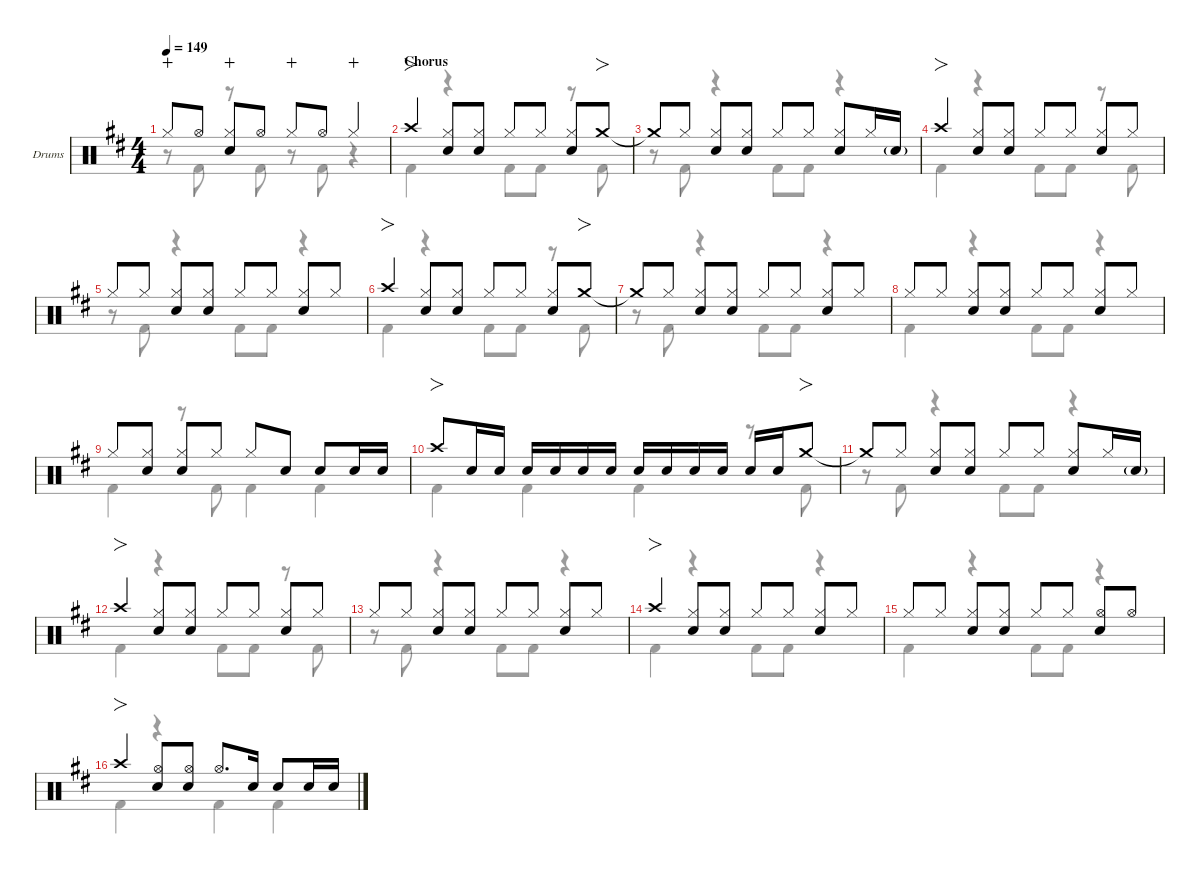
\defaultSystemsLayout 4
\hideDynamics
\bracketExtendMode nobrackets
\firstSystemTrackNameOrientation horizontal
\track ("Drums" "Drums") {defaultSystemsLayout 4 instrument percussion}
\staff {score}
\articulation defaults
\voice
\ts (4 4)
\tempo 149
\clef neutral
\scale
0.488263
\ks d "Hi-Hat (closed)"{acc forcenatural}.8{dy mp wahc beam Up} "Hi-Hat (open)"{acc forcenatural}.8{dy f beam Up}
("Hi-Hat (closed)"{acc forcenatural} "Snare (hit) 2"{acc forcenatural}).8{wahc beam Up} "Hi-Hat (open)"{acc forcenatural}.8{beam Up} "Hi-Hat (closed)"{acc forcenatural}.8{dy mp wahc beam Up} "Hi-Hat (open)"{acc forcenatural}.8{dy f beam Up} "Hi-Hat (closed)"{acc forcenatural}.4{dy mp wahc beam Up} |
\section ("" "Chorus")
\scale
0.267605 "Crash high (hit)"{acc forcenatural}.4{fo dy f beam Up} ("Hi-Hat (closed)"{acc forcenatural} "Snare (hit) 2"{acc forcenatural}).8{beam Up} ("Hi-Hat (closed)"{acc forcenatural} "Snare (hit) 2"{acc forcenatural}).8{beam Up} "Hi-Hat (closed)"{acc forcenatural}.8{beam Up} "Hi-Hat (closed)"{acc forcenatural}.8{dy mp beam Up} ("Hi-Hat (closed)"{acc forcenatural} "Snare (hit) 2"{acc forcenatural}).8{dy f beam Up} "Crash medium (hit)"{acc forcenatural}.8{fo beam Up} |
\scale
0.244132 "Crash medium (hit)"{t acc forcenatural}.8{beam Up} "Hi-Hat (closed)"{acc forcenatural}.8{dy mp beam Up} ("Hi-Hat (closed)"{acc forcenatural} "Snare (hit) 2"{acc forcenatural}).8{dy f beam Up} ("Hi-Hat (closed)"{acc forcenatural} "Snare (hit) 2"{acc forcenatural}).8{beam Up} "Hi-Hat (closed)"{acc forcenatural}.8{beam Up} "Hi-Hat (closed)"{acc forcenatural}.8{dy mp beam Up beam split} ("Hi-Hat (closed)"{acc forcenatural} "Snare (hit) 2"{acc forcenatural}).8{dy f beam Up} "Hi-Hat (closed)"{acc forcenatural}.16{dy mp beam Up} "Snare (hit) 2"{g acc forcenatural}.16{dy mf beam Up} |
\scale
0.244132 "Crash high (hit)"{acc forcenatural}.4{fo dy f beam Up} ("Hi-Hat (closed)"{acc forcenatural} "Snare (hit) 2"{acc forcenatural}).8{beam Up} ("Hi-Hat (closed)"{acc forcenatural} "Snare (hit) 2"{acc forcenatural}).8{beam Up} "Hi-Hat (closed)"{acc forcenatural}.8{beam Up} "Hi-Hat (closed)"{acc forcenatural}.8{dy mp beam Up} ("Hi-Hat (closed)"{acc forcenatural} "Snare (hit) 2"{acc forcenatural}).8{dy f beam Up} "Hi-Hat (closed)"{acc forcenatural}.8{dy mp beam Up} |
\scale
0.244132 "Hi-Hat (closed)"{acc forcenatural}.8{dy f beam Up} "Hi-Hat (closed)"{acc forcenatural}.8{dy mp beam Up} ("Hi-Hat (closed)"{acc forcenatural} "Snare (hit) 2"{acc forcenatural}).8{dy f beam Up} ("Hi-Hat (closed)"{acc forcenatural} "Snare (hit) 2"{acc forcenatural}).8{beam Up} "Hi-Hat (closed)"{acc forcenatural}.8{beam Up} "Hi-Hat (closed)"{acc forcenatural}.8{dy mp beam Up} ("Hi-Hat (closed)"{acc forcenatural} "Snare (hit) 2"{acc forcenatural}).8{dy f beam Up} "Hi-Hat (closed)"{acc forcenatural}.8{dy mp beam Up} |
\scale
0.267605 "Crash high (hit)"{acc forcenatural}.4{fo dy f beam Up} ("Hi-Hat (closed)"{acc forcenatural} "Snare (hit) 2"{acc forcenatural}).8{beam Up} ("Hi-Hat (closed)"{acc forcenatural} "Snare (hit) 2"{acc forcenatural}).8{beam Up} "Hi-Hat (closed)"{acc forcenatural}.8{beam Up} "Hi-Hat (closed)"{acc forcenatural}.8{dy mp beam Up} ("Hi-Hat (closed)"{acc forcenatural} "Snare (hit) 2"{acc forcenatural}).8{dy f beam Up} "Crash medium (hit)"{acc forcenatural}.8{fo beam Up} |
\scale
0.244132 "Crash medium (hit)"{t acc forcenatural}.8{beam Up} "Hi-Hat (closed)"{acc forcenatural}.8{dy mp beam Up} ("Hi-Hat (closed)"{acc forcenatural} "Snare (hit) 2"{acc forcenatural}).8{dy f beam Up} ("Hi-Hat (closed)"{acc forcenatural} "Snare (hit) 2"{acc forcenatural}).8{beam Up} "Hi-Hat (closed)"{acc forcenatural}.8{beam Up} "Hi-Hat (closed)"{acc forcenatural}.8{dy mp beam Up} ("Hi-Hat (closed)"{acc forcenatural} "Snare (hit) 2"{acc forcenatural}).8{dy f beam Up} "Hi-Hat (closed)"{acc forcenatural}.8{dy mp beam Up} |
\scale
0.244132 "Hi-Hat (closed)"{acc forcenatural}.8{dy f beam Up} "Hi-Hat (closed)"{acc forcenatural}.8{dy mp beam Up} ("Hi-Hat (closed)"{acc forcenatural} "Snare (hit) 2"{acc forcenatural}).8{dy f beam Up} ("Hi-Hat (closed)"{acc forcenatural} "Snare (hit) 2"{acc forcenatural}).8{beam Up} "Hi-Hat (closed)"{acc forcenatural}.8{beam Up} "Hi-Hat (closed)"{acc forcenatural}.8{dy mp beam Up} ("Hi-Hat (closed)"{acc forcenatural} "Snare (hit) 2"{acc forcenatural}).8{dy f beam Up} "Hi-Hat (closed)"{acc forcenatural}.8{dy mp beam Up} |
\scale
0.244132 "Hi-Hat (closed)"{acc forcenatural}.8{dy f beam Up} ("Hi-Hat (closed)"{acc forcenatural} "Snare (hit) 2"{acc forcenatural}).8{beam Up} ("Hi-Hat (closed)"{acc forcenatural} "Snare (hit) 2"{acc forcenatural}).8{beam Up} "Hi-Hat (closed)"{acc forcenatural}.8{dy mp beam Up} "Hi-Hat (closed)"{acc forcenatural}.8{dy f beam Up} "Snare (hit) 2"{acc forcenatural}.8{beam Up beam split} "Snare (hit) 2"{acc forcenatural}.8{beam Up} "Snare (hit) 2"{acc forcenatural}.16{beam Up} "Snare (hit) 2"{acc forcenatural}.16{beam Up} |
\scale
0.267605 "Crash high (hit)"{acc forcenatural}.8{fo beam Up} "Snare (hit) 2"{acc forcenatural}.16{beam Up} "Snare (hit) 2"{acc forcenatural}.16{dy mf beam Up beam split} "Snare (hit) 2"{acc forcenatural}.16{dy f beam Up beam merge} "Snare (hit) 2"{acc forcenatural}.16{dy mf beam Up beam merge} "Snare (hit) 2"{acc forcenatural}.16{dy f beam Up} "Snare (hit) 2"{acc forcenatural}.16{dy mf beam Up beam split} "Snare (hit) 2"{acc forcenatural}.16{dy f beam Up beam merge} "Snare (hit) 2"{acc forcenatural}.16{dy mf beam Up beam merge} "Snare (hit) 2"{acc forcenatural}.16{dy f beam Up} "Snare (hit) 2"{acc forcenatural}.16{dy mf beam Up beam split} "Snare (hit) 2"{acc forcenatural}.16{dy f beam Up} "Snare (hit) 2"{acc forcenatural}.16{dy mf beam Up beam merge} "Crash medium (hit)"{acc forcenatural}.8{fo dy f beam Up} |
\scale
0.244132 "Crash medium (hit)"{t acc forcenatural}.8{beam Up} "Hi-Hat (closed)"{acc forcenatural}.8{dy mp beam Up} ("Hi-Hat (closed)"{acc forcenatural} "Snare (hit) 2"{acc forcenatural}).8{dy f beam Up} ("Hi-Hat (closed)"{acc forcenatural} "Snare (hit) 2"{acc forcenatural}).8{beam Up} "Hi-Hat (closed)"{acc forcenatural}.8{beam Up} "Hi-Hat (closed)"{acc forcenatural}.8{dy mp beam Up beam split} ("Hi-Hat (closed)"{acc forcenatural} "Snare (hit) 2"{acc forcenatural}).8{dy f beam Up} "Hi-Hat (closed)"{acc forcenatural}.16{dy mp beam Up} "Snare (hit) 2"{g acc forcenatural}.16{dy mf beam Up} |
\scale
0.244132 "Crash high (hit)"{acc forcenatural}.4{fo dy f beam Up} ("Hi-Hat (closed)"{acc forcenatural} "Snare (hit) 2"{acc forcenatural}).8{beam Up} ("Hi-Hat (closed)"{acc forcenatural} "Snare (hit) 2"{acc forcenatural}).8{beam Up} "Hi-Hat (closed)"{acc forcenatural}.8{beam Up} "Hi-Hat (closed)"{acc forcenatural}.8{dy mp beam Up} ("Hi-Hat (closed)"{acc forcenatural} "Snare (hit) 2"{acc forcenatural}).8{dy f beam Up} "Hi-Hat (closed)"{acc forcenatural}.8{dy mp beam Up} |
\scale
0.244132 "Hi-Hat (closed)"{acc forcenatural}.8{dy f beam Up} "Hi-Hat (closed)"{acc forcenatural}.8{dy mp beam Up} ("Hi-Hat (closed)"{acc forcenatural} "Snare (hit) 2"{acc forcenatural}).8{dy f beam Up} ("Hi-Hat (closed)"{acc forcenatural} "Snare (hit) 2"{acc forcenatural}).8{beam Up} "Hi-Hat (closed)"{acc forcenatural}.8{beam Up} "Hi-Hat (closed)"{acc forcenatural}.8{dy mp beam Up} ("Hi-Hat (closed)"{acc forcenatural} "Snare (hit) 2"{acc forcenatural}).8{dy f beam Up} "Hi-Hat (closed)"{acc forcenatural}.8{dy mp beam Up} |
\scale
0.345786 "Crash high (hit)"{acc forcenatural}.4{fo dy f beam Up} ("Hi-Hat (closed)"{acc forcenatural} "Snare (hit) 2"{acc forcenatural}).8{beam Up} ("Hi-Hat (closed)"{acc forcenatural} "Snare (hit) 2"{acc forcenatural}).8{beam Up} "Hi-Hat (closed)"{acc forcenatural}.8{beam Up} "Hi-Hat (closed)"{acc forcenatural}.8{dy mp beam Up} ("Hi-Hat (closed)"{acc forcenatural} "Snare (hit) 2"{acc forcenatural}).8{dy f beam Up} "Hi-Hat (closed)"{acc forcenatural}.8{dy mp beam Up} |
\scale
0.330733 "Hi-Hat (closed)"{acc forcenatural}.8{dy f beam Up} "Hi-Hat (closed)"{acc forcenatural}.8{dy mp beam Up} ("Hi-Hat (closed)"{acc forcenatural} "Snare (hit) 2"{acc forcenatural}).8{dy f beam Up} ("Hi-Hat (closed)"{acc forcenatural} "Snare (hit) 2"{acc forcenatural}).8{beam Up} "Hi-Hat (closed)"{acc forcenatural}.8{beam Up} "Hi-Hat (closed)"{acc forcenatural}.8{dy mp beam Up} ("Hi-Hat (open)"{acc forcenatural} "Snare (hit) 2"{acc forcenatural}).8{dy f beam Up} "Hi-Hat (open)"{acc forcenatural}.8{dy mf beam Up} |
\scale
0.323481 "Crash high (hit)"{acc forcenatural}.4{fo dy f beam Up} ("Hi-Hat (open)"{acc forcenatural} "Snare (hit) 2"{acc forcenatural}).8{beam Up} ("Hi-Hat (open)"{acc forcenatural} "Snare (hit) 2"{acc forcenatural}).8{beam Up} "Hi-Hat (open)"{acc forcenatural}.8{d beam Up} "Snare (hit) 2"{acc forcenatural}.16{beam Up beam split} "Snare (hit) 2"{acc forcenatural}.8{beam Up} "Snare (hit) 2"{acc forcenatural}.16{beam Up} "Snare (hit) 2"{acc forcenatural}.16{beam Up}
\voice
\clef neutral
\ottava regular
\simile none
\scale
0.488263
\ks d
r.8{dy f beam Down} "Kick (hit) 2"{acc forcenatural}.8{beam Down} r.8{beam Down} "Kick (hit) 2"{acc forcenatural}.8{beam Down} r.8{beam Down} "Kick (hit) 2"{acc forcenatural}.8{beam Down} r.4{beam Down} |
\scale
0.267605 "Kick (hit) 2"{acc forcenatural}.4{beam Down} r.4{beam Down} "Kick (hit) 2"{acc forcenatural}.8{beam Down} "Kick (hit) 2"{acc forcenatural}.8{beam Down} r.8{beam Down} "Kick (hit) 2"{acc forcenatural}.8{beam Down} |
\scale
0.244132 r.8{beam Down} "Kick (hit) 2"{acc forcenatural}.8{beam Down} r.4{beam Down} "Kick (hit) 2"{acc forcenatural}.8{beam Down} "Kick (hit) 2"{acc forcenatural}.8{beam Down} r.4{beam Down} |
\scale
0.244132 "Kick (hit) 2"{acc forcenatural}.4{beam Down} r.4{beam Down} "Kick (hit) 2"{acc forcenatural}.8{beam Down} "Kick (hit) 2"{acc forcenatural}.8{beam Down} r.8{beam Down} "Kick (hit) 2"{acc forcenatural}.8{beam Down} |
\scale
0.244132 r.8{beam Down} "Kick (hit) 2"{acc forcenatural}.8{beam Down} r.4{beam Down} "Kick (hit) 2"{acc forcenatural}.8{beam Down} "Kick (hit) 2"{acc forcenatural}.8{beam Down} r.4{beam Down} |
\scale
0.267605 "Kick (hit) 2"{acc forcenatural}.4{beam Down} r.4{beam Down} "Kick (hit) 2"{acc forcenatural}.8{beam Down} "Kick (hit) 2"{acc forcenatural}.8{beam Down} r.8{beam Down} "Kick (hit) 2"{acc forcenatural}.8{beam Down} |
\scale
0.244132 r.8{beam Down} "Kick (hit) 2"{acc forcenatural}.8{beam Down} r.4{beam Down} "Kick (hit) 2"{acc forcenatural}.8{beam Down} "Kick (hit) 2"{acc forcenatural}.8{beam Down} r.4{beam Down} |
\scale
0.244132 "Kick (hit) 2"{acc forcenatural}.4{beam Down} r.4{beam Down} "Kick (hit) 2"{acc forcenatural}.8{beam Down} "Kick (hit) 2"{acc forcenatural}.8{beam Down} r.4{beam Down} |
\scale
0.244132 "Kick (hit) 2"{acc forcenatural}.4{beam Down} r.8{beam Down} "Kick (hit) 2"{acc forcenatural}.8{beam Down} "Kick (hit) 2"{acc forcenatural}.4{beam Down} "Kick (hit) 2"{acc forcenatural}.4{beam Down} |
\scale
0.267605 "Kick (hit) 2"{acc forcenatural}.4{beam Down} "Kick (hit) 2"{acc forcenatural}.4{beam Down} "Kick (hit) 2"{acc forcenatural}.4{beam Down} r.8{beam Down} "Kick (hit) 2"{acc forcenatural}.8{beam Down} |
\scale
0.244132 r.8{beam Down} "Kick (hit) 2"{acc forcenatural}.8{beam Down} r.4{beam Down} "Kick (hit) 2"{acc forcenatural}.8{beam Down} "Kick (hit) 2"{acc forcenatural}.8{beam Down} r.4{beam Down} |
\scale
0.244132 "Kick (hit) 2"{acc forcenatural}.4{beam Down} r.4{beam Down} "Kick (hit) 2"{acc forcenatural}.8{beam Down} "Kick (hit) 2"{acc forcenatural}.8{beam Down} r.8{beam Down} "Kick (hit) 2"{acc forcenatural}.8{beam Down} |
\scale
0.244132 r.8{beam Down} "Kick (hit) 2"{acc forcenatural}.8{beam Down} r.4{beam Down} "Kick (hit) 2"{acc forcenatural}.8{beam Down} "Kick (hit) 2"{acc forcenatural}.8{beam Down} r.4{beam Down} |
\scale
0.345786 "Kick (hit) 2"{acc forcenatural}.4{beam Down} r.4{beam Down} "Kick (hit) 2"{acc forcenatural}.8{beam Down} "Kick (hit) 2"{acc forcenatural}.8{beam Down} r.4{beam Down} |
\scale
0.330733 "Kick (hit) 2"{acc forcenatural}.4{beam Down} r.4{beam Down} "Kick (hit) 2"{acc forcenatural}.8{beam Down} "Kick (hit) 2"{acc forcenatural}.8{beam Down} r.4{beam Down} |
\scale
0.323481 "Kick (hit) 2"{acc forcenatural}.4{beam Down} r.4{beam Down} "Kick (hit) 2"{acc forcenatural}.4{beam Down} "Kick (hit) 2"{acc forcenatural}.4{beam Down}
